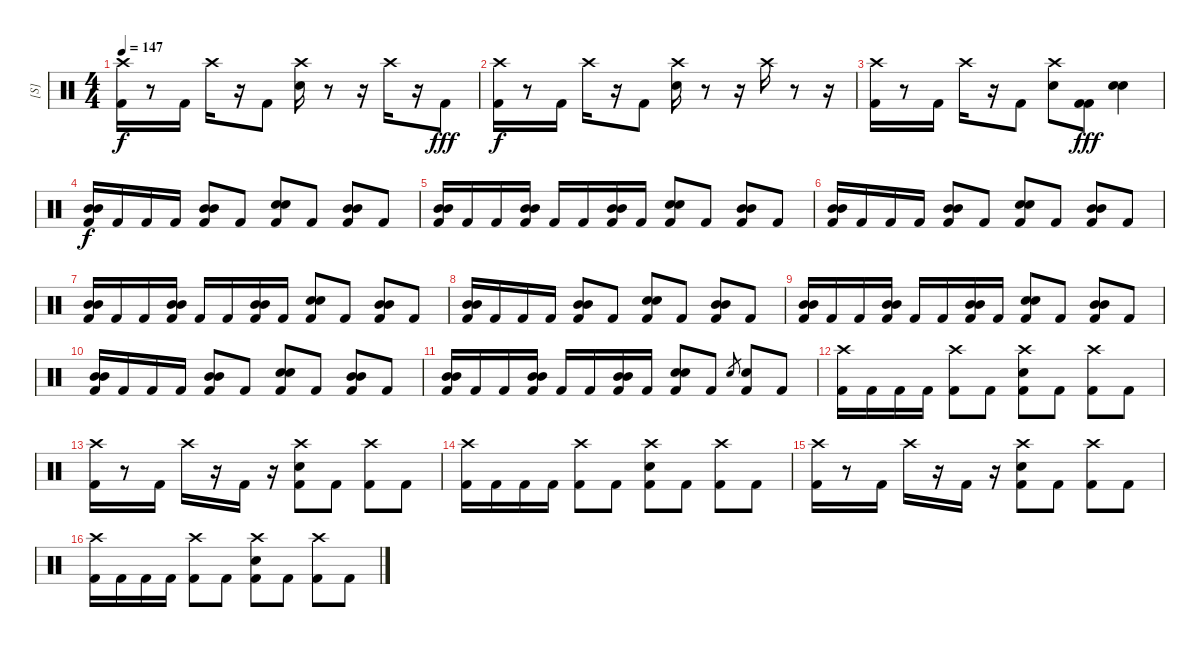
\track ("[S]" "[S]") {instrument percussion}
\staff {score}
\articulation defaults
\ts (4 4)
\tempo 147
\clef neutral
\ks c
("Crash high (hit)" "Kick (hit) 2").16{dy f} r.8 "Kick (hit) 2".16 "Crash high (hit)".16 r.16 "Kick (hit) 2".8 ("Crash high (hit)" "Snare (hit) 2").16 r.8 r.16 "Crash high (hit)".16 r.16 "Kick (hit) 2".8{dy fff} |
("Crash high (hit)" "Kick (hit) 2").16{dy f} r.8 "Kick (hit) 2".16 "Crash high (hit)".16 r.16 "Kick (hit) 2".8 ("Crash high (hit)" "Snare (hit) 2").16 r.8 r.16 "Crash high (hit)".16 r.8 r.16 |
("Crash high (hit)" "Kick (hit) 2").16 r.8 "Kick (hit) 2".16 "Crash high (hit)".16 r.16 "Kick (hit) 2".8 ("Crash high (hit)" "Snare (hit) 2").8 ("Kick (hit) 2" "Kick (hit) 2").8{dy fff} ("Snare (hit) 2" "Snare (hit) 2").4 |
("Mid Tom (hit)" "Mid Tom (hit)" "Kick (hit) 2").16{dy f} "Kick (hit) 2".16 "Kick (hit) 2".16 "Kick (hit) 2".16 ("Mid Tom (hit)" "Mid Tom (hit)" "Kick (hit) 2").8 "Kick (hit) 2".8 ("Snare (hit) 2" "Snare (hit) 2" "Kick (hit) 2").8 "Kick (hit) 2".8 ("Mid Tom (hit)" "Mid Tom (hit)" "Kick (hit) 2").8 "Kick (hit) 2".8 |
("Mid Tom (hit)" "Mid Tom (hit)" "Kick (hit) 2").16 "Kick (hit) 2".16 "Kick (hit) 2".16 ("Mid Tom (hit)" "Mid Tom (hit)" "Kick (hit) 2").16 "Kick (hit) 2".16 "Kick (hit) 2".16 ("Mid Tom (hit)" "Mid Tom (hit)" "Kick (hit) 2").16 "Kick (hit) 2".16 ("Snare (hit) 2" "Snare (hit) 2" "Kick (hit) 2").8 "Kick (hit) 2".8 ("Mid Tom (hit)" "Mid Tom (hit)" "Kick (hit) 2").8 "Kick (hit) 2".8 |
("Mid Tom (hit)" "Mid Tom (hit)" "Kick (hit) 2").16 "Kick (hit) 2".16 "Kick (hit) 2".16 "Kick (hit) 2".16 ("Mid Tom (hit)" "Mid Tom (hit)" "Kick (hit) 2").8 "Kick (hit) 2".8 ("Snare (hit) 2" "Snare (hit) 2" "Kick (hit) 2").8 "Kick (hit) 2".8 ("Mid Tom (hit)" "Mid Tom (hit)" "Kick (hit) 2").8 "Kick (hit) 2".8 |
("Mid Tom (hit)" "Mid Tom (hit)" "Kick (hit) 2").16 "Kick (hit) 2".16 "Kick (hit) 2".16 ("Mid Tom (hit)" "Mid Tom (hit)" "Kick (hit) 2").16 "Kick (hit) 2".16 "Kick (hit) 2".16 ("Mid Tom (hit)" "Mid Tom (hit)" "Kick (hit) 2").16 "Kick (hit) 2".16 ("Snare (hit) 2" "Snare (hit) 2" "Kick (hit) 2").8 "Kick (hit) 2".8 ("Mid Tom (hit)" "Mid Tom (hit)" "Kick (hit) 2").8 "Kick (hit) 2".8 |
("Mid Tom (hit)" "Mid Tom (hit)" "Kick (hit) 2").16 "Kick (hit) 2".16 "Kick (hit) 2".16 "Kick (hit) 2".16 ("Mid Tom (hit)" "Mid Tom (hit)" "Kick (hit) 2").8 "Kick (hit) 2".8 ("Snare (hit) 2" "Snare (hit) 2" "Kick (hit) 2").8 "Kick (hit) 2".8 ("Mid Tom (hit)" "Mid Tom (hit)" "Kick (hit) 2").8 "Kick (hit) 2".8 |
("Mid Tom (hit)" "Mid Tom (hit)" "Kick (hit) 2").16 "Kick (hit) 2".16 "Kick (hit) 2".16 ("Mid Tom (hit)" "Mid Tom (hit)" "Kick (hit) 2").16 "Kick (hit) 2".16 "Kick (hit) 2".16 ("Mid Tom (hit)" "Mid Tom (hit)" "Kick (hit) 2").16 "Kick (hit) 2".16 ("Snare (hit) 2" "Snare (hit) 2" "Kick (hit) 2").8 "Kick (hit) 2".8 ("Mid Tom (hit)" "Mid Tom (hit)" "Kick (hit) 2").8 "Kick (hit) 2".8 |
("Mid Tom (hit)" "Mid Tom (hit)" "Kick (hit) 2").16 "Kick (hit) 2".16 "Kick (hit) 2".16 "Kick (hit) 2".16 ("Mid Tom (hit)" "Mid Tom (hit)" "Kick (hit) 2").8 "Kick (hit) 2".8 ("Snare (hit) 2" "Snare (hit) 2" "Kick (hit) 2").8 "Kick (hit) 2".8 ("Mid Tom (hit)" "Mid Tom (hit)" "Kick (hit) 2").8 "Kick (hit) 2".8 |
("Mid Tom (hit)" "Mid Tom (hit)" "Kick (hit) 2").16 "Kick (hit) 2".16 "Kick (hit) 2".16 ("Mid Tom (hit)" "Mid Tom (hit)" "Kick (hit) 2").16 "Kick (hit) 2".16 "Kick (hit) 2".16 ("Mid Tom (hit)" "Mid Tom (hit)" "Kick (hit) 2").16 "Kick (hit) 2".16 ("Snare (hit) 2" "Snare (hit) 2" "Kick (hit) 2").8 "Kick (hit) 2".8 "Snare (hit) 2".8{gr} ("Snare (hit) 2" "Kick (hit) 2").8 "Kick (hit) 2".8 |
("Crash high (hit)" "Kick (hit) 2").16 "Kick (hit) 2".16 "Kick (hit) 2".16 "Kick (hit) 2".16 ("Crash high (hit)" "Kick (hit) 2").8 "Kick (hit) 2".8 ("Crash high (hit)" "Snare (hit) 2" "Kick (hit) 2").8 "Kick (hit) 2".8 ("Crash high (hit)" "Kick (hit) 2").8 "Kick (hit) 2".8 |
("Crash high (hit)" "Kick (hit) 2").16 r.8 "Kick (hit) 2".16 "Crash high (hit)".16 r.16 "Kick (hit) 2".16 r.16 ("Crash high (hit)" "Snare (hit) 2" "Kick (hit) 2").8 "Kick (hit) 2".8 ("Crash high (hit)" "Kick (hit) 2").8 "Kick (hit) 2".8 |
("Crash high (hit)" "Kick (hit) 2").16 "Kick (hit) 2".16 "Kick (hit) 2".16 "Kick (hit) 2".16 ("Crash high (hit)" "Kick (hit) 2").8 "Kick (hit) 2".8 ("Crash high (hit)" "Snare (hit) 2" "Kick (hit) 2").8 "Kick (hit) 2".8 ("Crash high (hit)" "Kick (hit) 2").8 "Kick (hit) 2".8 |
("Crash high (hit)" "Kick (hit) 2").16 r.8 "Kick (hit) 2".16 "Crash high (hit)".16 r.16 "Kick (hit) 2".16 r.16 ("Crash high (hit)" "Snare (hit) 2" "Kick (hit) 2").8 "Kick (hit) 2".8 ("Crash high (hit)" "Kick (hit) 2").8 "Kick (hit) 2".8 |
("Crash high (hit)" "Kick (hit) 2").16 "Kick (hit) 2".16 "Kick (hit) 2".16 "Kick (hit) 2".16 ("Crash high (hit)" "Kick (hit) 2").8 "Kick (hit) 2".8 ("Crash high (hit)" "Snare (hit) 2" "Kick (hit) 2").8 "Kick (hit) 2".8 ("Crash high (hit)" "Kick (hit) 2").8 "Kick (hit) 2".8
